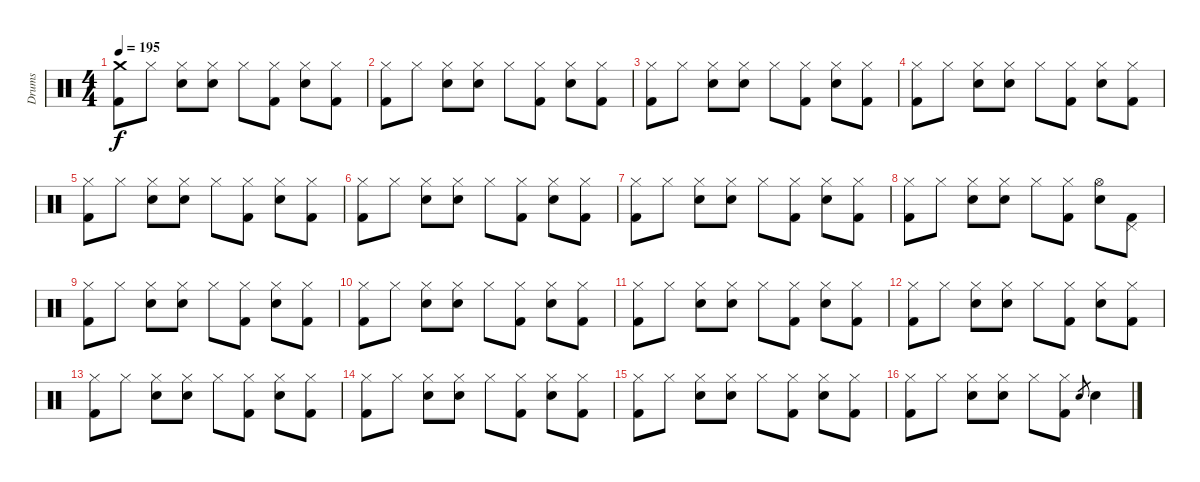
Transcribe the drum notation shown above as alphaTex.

\track ("Drums" "Drums") {instrument percussion}
\staff {score}
\articulation defaults
\ts (4 4)
\tempo 195
\clef neutral
\ks c
("Crash medium (hit)" "Kick (hit) 2").8{dy f} "Hi-Hat (closed)".8 ("Hi-Hat (closed)" "Electric Snare (hit)").8 ("Hi-Hat (closed)" "Electric Snare (hit)").8 "Hi-Hat (closed)".8 ("Hi-Hat (closed)" "Kick (hit) 2").8 ("Hi-Hat (closed)" "Electric Snare (hit)").8 ("Hi-Hat (closed)" "Kick (hit) 2").8 |
("Hi-Hat (closed)" "Kick (hit) 2").8 "Hi-Hat (closed)".8 ("Hi-Hat (closed)" "Electric Snare (hit)").8 ("Hi-Hat (closed)" "Electric Snare (hit)").8 "Hi-Hat (closed)".8 ("Hi-Hat (closed)" "Kick (hit) 2").8 ("Hi-Hat (closed)" "Electric Snare (hit)").8 ("Hi-Hat (closed)" "Kick (hit) 2").8 |
("Hi-Hat (closed)" "Kick (hit) 2").8 "Hi-Hat (closed)".8 ("Hi-Hat (closed)" "Electric Snare (hit)").8 ("Hi-Hat (closed)" "Electric Snare (hit)").8 "Hi-Hat (closed)".8 ("Hi-Hat (closed)" "Kick (hit) 2").8 ("Hi-Hat (closed)" "Electric Snare (hit)").8 ("Hi-Hat (closed)" "Kick (hit) 2").8 |
("Hi-Hat (closed)" "Kick (hit) 2").8 "Hi-Hat (closed)".8 ("Hi-Hat (closed)" "Electric Snare (hit)").8 ("Hi-Hat (closed)" "Electric Snare (hit)").8 "Hi-Hat (closed)".8 ("Hi-Hat (closed)" "Kick (hit) 2").8 ("Hi-Hat (closed)" "Electric Snare (hit)").8 ("Hi-Hat (closed)" "Kick (hit) 2").8 |
("Hi-Hat (closed)" "Kick (hit) 2").8 "Hi-Hat (closed)".8 ("Hi-Hat (closed)" "Electric Snare (hit)").8 ("Hi-Hat (closed)" "Electric Snare (hit)").8 "Hi-Hat (closed)".8 ("Hi-Hat (closed)" "Kick (hit) 2").8 ("Hi-Hat (closed)" "Electric Snare (hit)").8 ("Hi-Hat (closed)" "Kick (hit) 2").8 |
("Hi-Hat (closed)" "Kick (hit) 2").8 "Hi-Hat (closed)".8 ("Hi-Hat (closed)" "Electric Snare (hit)").8 ("Hi-Hat (closed)" "Electric Snare (hit)").8 "Hi-Hat (closed)".8 ("Hi-Hat (closed)" "Kick (hit) 2").8 ("Hi-Hat (closed)" "Electric Snare (hit)").8 ("Hi-Hat (closed)" "Kick (hit) 2").8 |
("Hi-Hat (closed)" "Kick (hit) 2").8 "Hi-Hat (closed)".8 ("Hi-Hat (closed)" "Electric Snare (hit)").8 ("Hi-Hat (closed)" "Electric Snare (hit)").8 "Hi-Hat (closed)".8 ("Hi-Hat (closed)" "Kick (hit) 2").8 ("Hi-Hat (closed)" "Electric Snare (hit)").8 ("Hi-Hat (closed)" "Kick (hit) 2").8 |
("Hi-Hat (closed)" "Kick (hit) 2").8 "Hi-Hat (closed)".8 ("Hi-Hat (closed)" "Electric Snare (hit)").8 ("Hi-Hat (closed)" "Electric Snare (hit)").8 "Hi-Hat (closed)".8 ("Hi-Hat (closed)" "Kick (hit) 2").8 ("Hi-Hat (open)" "Electric Snare (hit)").8 ("Pedal Hi-Hat (hit)" "Kick (hit) 2").8 |
("Hi-Hat (closed)" "Kick (hit) 2").8 "Hi-Hat (closed)".8 ("Hi-Hat (closed)" "Electric Snare (hit)").8 ("Hi-Hat (closed)" "Electric Snare (hit)").8 "Hi-Hat (closed)".8 ("Hi-Hat (closed)" "Kick (hit) 2").8 ("Hi-Hat (closed)" "Electric Snare (hit)").8 ("Hi-Hat (closed)" "Kick (hit) 2").8 |
("Hi-Hat (closed)" "Kick (hit) 2").8 "Hi-Hat (closed)".8 ("Hi-Hat (closed)" "Electric Snare (hit)").8 ("Hi-Hat (closed)" "Electric Snare (hit)").8 "Hi-Hat (closed)".8 ("Hi-Hat (closed)" "Kick (hit) 2").8 ("Hi-Hat (closed)" "Electric Snare (hit)").8 ("Hi-Hat (closed)" "Kick (hit) 2").8 |
("Hi-Hat (closed)" "Kick (hit) 2").8 "Hi-Hat (closed)".8 ("Hi-Hat (closed)" "Electric Snare (hit)").8 ("Hi-Hat (closed)" "Electric Snare (hit)").8 "Hi-Hat (closed)".8 ("Hi-Hat (closed)" "Kick (hit) 2").8 ("Hi-Hat (closed)" "Electric Snare (hit)").8 ("Hi-Hat (closed)" "Kick (hit) 2").8 |
("Hi-Hat (closed)" "Kick (hit) 2").8 "Hi-Hat (closed)".8 ("Hi-Hat (closed)" "Electric Snare (hit)").8 ("Hi-Hat (closed)" "Electric Snare (hit)").8 "Hi-Hat (closed)".8 ("Hi-Hat (closed)" "Kick (hit) 2").8 ("Hi-Hat (closed)" "Electric Snare (hit)").8 ("Hi-Hat (closed)" "Kick (hit) 2").8 |
("Hi-Hat (closed)" "Kick (hit) 2").8 "Hi-Hat (closed)".8 ("Hi-Hat (closed)" "Electric Snare (hit)").8 ("Hi-Hat (closed)" "Electric Snare (hit)").8 "Hi-Hat (closed)".8 ("Hi-Hat (closed)" "Kick (hit) 2").8 ("Hi-Hat (closed)" "Electric Snare (hit)").8 ("Hi-Hat (closed)" "Kick (hit) 2").8 |
("Hi-Hat (closed)" "Kick (hit) 2").8 "Hi-Hat (closed)".8 ("Hi-Hat (closed)" "Electric Snare (hit)").8 ("Hi-Hat (closed)" "Electric Snare (hit)").8 "Hi-Hat (closed)".8 ("Hi-Hat (closed)" "Kick (hit) 2").8 ("Hi-Hat (closed)" "Electric Snare (hit)").8 ("Hi-Hat (closed)" "Kick (hit) 2").8 |
("Hi-Hat (closed)" "Kick (hit) 2").8 "Hi-Hat (closed)".8 ("Hi-Hat (closed)" "Electric Snare (hit)").8 ("Hi-Hat (closed)" "Electric Snare (hit)").8 "Hi-Hat (closed)".8 ("Hi-Hat (closed)" "Kick (hit) 2").8 ("Hi-Hat (closed)" "Electric Snare (hit)").8 ("Hi-Hat (closed)" "Kick (hit) 2").8 |
("Hi-Hat (closed)" "Kick (hit) 2").8 "Hi-Hat (closed)".8 ("Hi-Hat (closed)" "Electric Snare (hit)").8 ("Hi-Hat (closed)" "Electric Snare (hit)").8 "Hi-Hat (closed)".8 ("Hi-Hat (closed)" "Kick (hit) 2").8 "Electric Snare (hit)".8{gr} "Electric Snare (hit)".4
